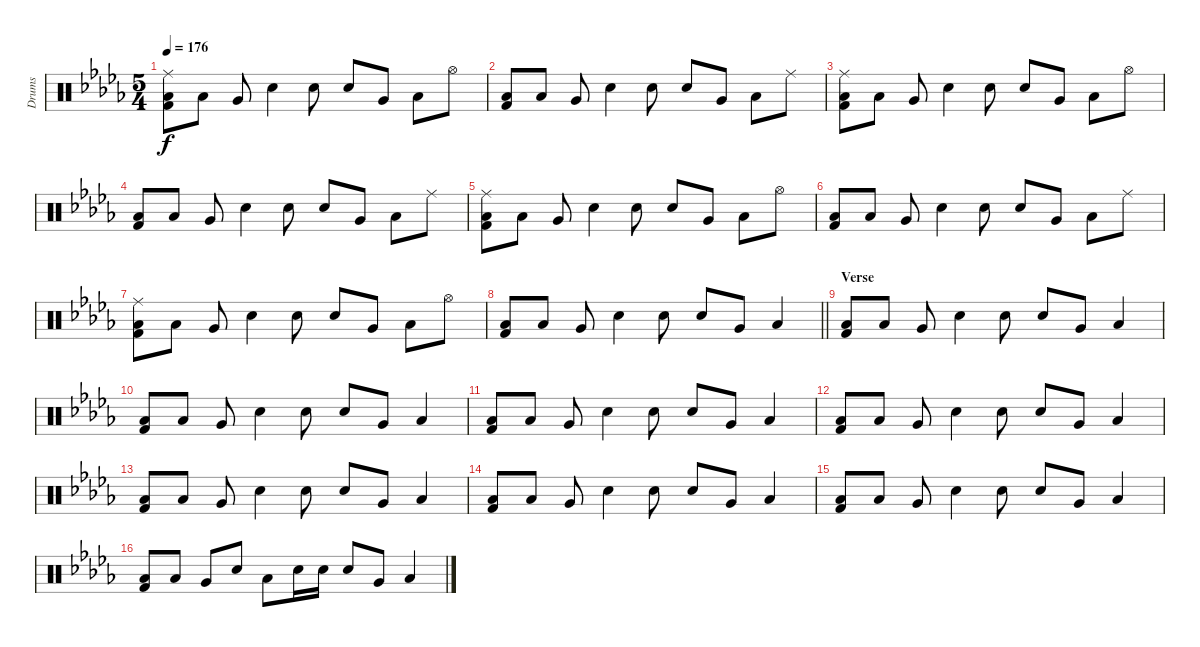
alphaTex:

\track ("Drums" "Drums") {instrument percussion}
\staff {score}
\articulation defaults
\ts (5 4)
\tempo 176
\clef neutral
\ks db
("Ride (middle)" "Low Floor Tom (hit)" "Kick (hit) 2").8{dy f} "Low Floor Tom (hit)".8 "Very Low Tom (hit)".8 "Snare (hit) 2".4 "Snare (hit) 2".8 "Snare (hit) 2".8 "Very Low Tom (hit)".8 "Low Floor Tom (hit)".8 "Hi-Hat (open)".8 |
("Low Floor Tom (hit)" "Kick (hit) 2").8 "Low Floor Tom (hit)".8 "Very Low Tom (hit)".8 "Snare (hit) 2".4 "Snare (hit) 2".8 "Snare (hit) 2".8 "Very Low Tom (hit)".8 "Low Floor Tom (hit)".8 "Ride (middle)".8 |
("Ride (middle)" "Low Floor Tom (hit)" "Kick (hit) 2").8 "Low Floor Tom (hit)".8 "Very Low Tom (hit)".8 "Snare (hit) 2".4 "Snare (hit) 2".8 "Snare (hit) 2".8 "Very Low Tom (hit)".8 "Low Floor Tom (hit)".8 "Hi-Hat (open)".8 |
("Low Floor Tom (hit)" "Kick (hit) 2").8 "Low Floor Tom (hit)".8 "Very Low Tom (hit)".8 "Snare (hit) 2".4 "Snare (hit) 2".8 "Snare (hit) 2".8 "Very Low Tom (hit)".8 "Low Floor Tom (hit)".8 "Ride (middle)".8 |
("Ride (middle)" "Low Floor Tom (hit)" "Kick (hit) 2").8 "Low Floor Tom (hit)".8 "Very Low Tom (hit)".8 "Snare (hit) 2".4 "Snare (hit) 2".8 "Snare (hit) 2".8 "Very Low Tom (hit)".8 "Low Floor Tom (hit)".8 "Hi-Hat (open)".8 |
("Low Floor Tom (hit)" "Kick (hit) 2").8 "Low Floor Tom (hit)".8 "Very Low Tom (hit)".8 "Snare (hit) 2".4 "Snare (hit) 2".8 "Snare (hit) 2".8 "Very Low Tom (hit)".8 "Low Floor Tom (hit)".8 "Ride (middle)".8 |
("Ride (middle)" "Low Floor Tom (hit)" "Kick (hit) 2").8 "Low Floor Tom (hit)".8 "Very Low Tom (hit)".8 "Snare (hit) 2".4 "Snare (hit) 2".8 "Snare (hit) 2".8 "Very Low Tom (hit)".8 "Low Floor Tom (hit)".8 "Hi-Hat (open)".8 |
\barLineRight lightlight
("Low Floor Tom (hit)" "Kick (hit) 2").8 "Low Floor Tom (hit)".8 "Very Low Tom (hit)".8 "Snare (hit) 2".4 "Snare (hit) 2".8 "Snare (hit) 2".8 "Very Low Tom (hit)".8 "Low Floor Tom (hit)".4 |
\section ("" "Verse")
("Low Floor Tom (hit)" "Kick (hit) 2").8 "Low Floor Tom (hit)".8 "Very Low Tom (hit)".8 "Snare (hit) 2".4 "Snare (hit) 2".8 "Snare (hit) 2".8 "Very Low Tom (hit)".8 "Low Floor Tom (hit)".4 |
("Low Floor Tom (hit)" "Kick (hit) 2").8 "Low Floor Tom (hit)".8 "Very Low Tom (hit)".8 "Snare (hit) 2".4 "Snare (hit) 2".8 "Snare (hit) 2".8 "Very Low Tom (hit)".8 "Low Floor Tom (hit)".4 |
("Low Floor Tom (hit)" "Kick (hit) 2").8 "Low Floor Tom (hit)".8 "Very Low Tom (hit)".8 "Snare (hit) 2".4 "Snare (hit) 2".8 "Snare (hit) 2".8 "Very Low Tom (hit)".8 "Low Floor Tom (hit)".4 |
("Low Floor Tom (hit)" "Kick (hit) 2").8 "Low Floor Tom (hit)".8 "Very Low Tom (hit)".8 "Snare (hit) 2".4 "Snare (hit) 2".8 "Snare (hit) 2".8 "Very Low Tom (hit)".8 "Low Floor Tom (hit)".4 |
("Low Floor Tom (hit)" "Kick (hit) 2").8 "Low Floor Tom (hit)".8 "Very Low Tom (hit)".8 "Snare (hit) 2".4 "Snare (hit) 2".8 "Snare (hit) 2".8 "Very Low Tom (hit)".8 "Low Floor Tom (hit)".4 |
("Low Floor Tom (hit)" "Kick (hit) 2").8 "Low Floor Tom (hit)".8 "Very Low Tom (hit)".8 "Snare (hit) 2".4 "Snare (hit) 2".8 "Snare (hit) 2".8 "Very Low Tom (hit)".8 "Low Floor Tom (hit)".4 |
("Low Floor Tom (hit)" "Kick (hit) 2").8 "Low Floor Tom (hit)".8 "Very Low Tom (hit)".8 "Snare (hit) 2".4 "Snare (hit) 2".8 "Snare (hit) 2".8 "Very Low Tom (hit)".8 "Low Floor Tom (hit)".4 |
("Low Floor Tom (hit)" "Kick (hit) 2").8 "Low Floor Tom (hit)".8 "Very Low Tom (hit)".8 "Snare (hit) 2".8 "Low Floor Tom (hit)".8 "Snare (hit) 2".16 "Snare (hit) 2".16 "Snare (hit) 2".8 "Very Low Tom (hit)".8 "Low Floor Tom (hit)".4
